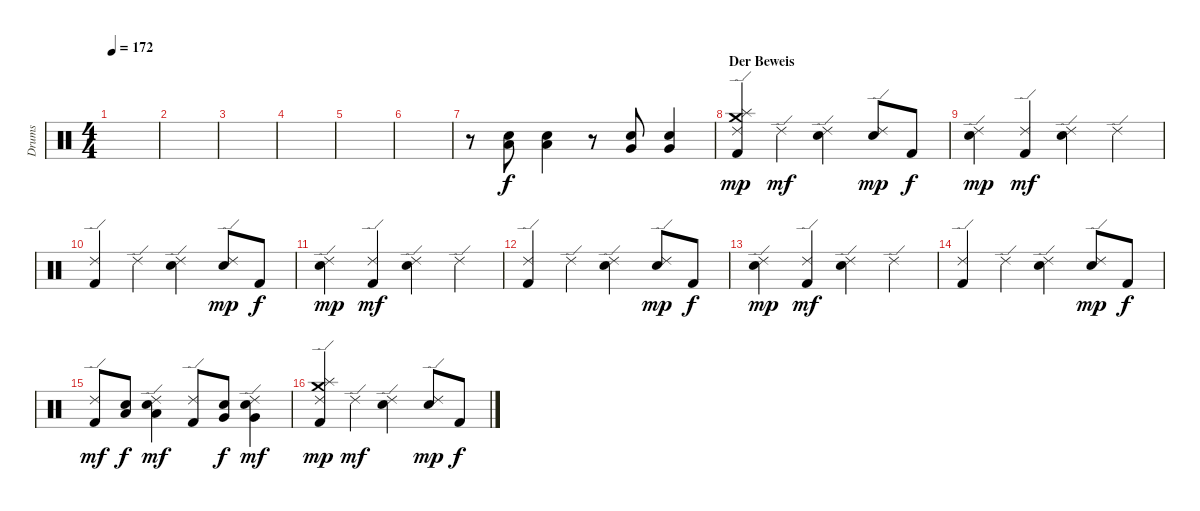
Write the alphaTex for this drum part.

\track ("Drums" "Drums") {instrument percussion}
\staff {score}
\articulation defaults
\ts (4 4)
\tempo 172
\clef neutral
\ks c
|
|
|
|
|
|
r.8 ("Electric Snare (hit)" "Low Tom (hit)").8{dy f volume 7} ("Electric Snare (hit)" "Low Tom (hit)").4 r.8 ("Electric Snare (hit)" "Very Low Tom (hit)").8 ("Electric Snare (hit)" "Very Low Tom (hit)").4 |
\section ("" "Der Beweis")
("Ride (edge) 2" "Splash (hit)" "Crash medium (hit)" "Kick (hit) 2").4{dy mp volume 9} "Ride (edge) 2".4{dy mf} ("Ride (edge) 2" "Electric Snare (hit)").4 ("Ride (edge) 2" "Electric Snare (hit)").8{dy mp} "Kick (hit) 2".8{dy f} |
("Ride (edge) 2" "Electric Snare (hit)").4{dy mp} ("Ride (edge) 2" "Kick (hit) 2").4{dy mf} ("Ride (edge) 2" "Electric Snare (hit)").4 "Ride (edge) 2".4 |
("Ride (edge) 2" "Kick (hit) 2").4 "Ride (edge) 2".4 ("Ride (edge) 2" "Electric Snare (hit)").4 ("Ride (edge) 2" "Electric Snare (hit)").8{dy mp} "Kick (hit) 2".8{dy f} |
("Ride (edge) 2" "Electric Snare (hit)").4{dy mp} ("Ride (edge) 2" "Kick (hit) 2").4{dy mf} ("Ride (edge) 2" "Electric Snare (hit)").4 "Ride (edge) 2".4 |
("Ride (edge) 2" "Kick (hit) 2").4 "Ride (edge) 2".4 ("Ride (edge) 2" "Electric Snare (hit)").4 ("Ride (edge) 2" "Electric Snare (hit)").8{dy mp} "Kick (hit) 2".8{dy f} |
("Ride (edge) 2" "Electric Snare (hit)").4{dy mp} ("Ride (edge) 2" "Kick (hit) 2").4{dy mf} ("Ride (edge) 2" "Electric Snare (hit)").4 "Ride (edge) 2".4 |
("Ride (edge) 2" "Kick (hit) 2").4 "Ride (edge) 2".4 ("Ride (edge) 2" "Electric Snare (hit)").4 ("Ride (edge) 2" "Electric Snare (hit)").8{dy mp} "Kick (hit) 2".8{dy f} |
("Ride (edge) 2" "Kick (hit) 2").8{dy mf} ("Electric Snare (hit)" "Low Tom (hit)").8{dy f} ("Ride (edge) 2" "Electric Snare (hit)" "Low Tom (hit)").4{dy mf} ("Ride (edge) 2" "Kick (hit) 2").8 ("Electric Snare (hit)" "Very Low Tom (hit)").8{dy f} ("Ride (edge) 2" "Electric Snare (hit)" "Very Low Tom (hit)").4{dy mf} |
("Ride (edge) 2" "Splash (hit)" "Crash medium (hit)" "Kick (hit) 2").4{dy mp} "Ride (edge) 2".4{dy mf} ("Ride (edge) 2" "Electric Snare (hit)").4 ("Ride (edge) 2" "Electric Snare (hit)").8{dy mp} "Kick (hit) 2".8{dy f}
